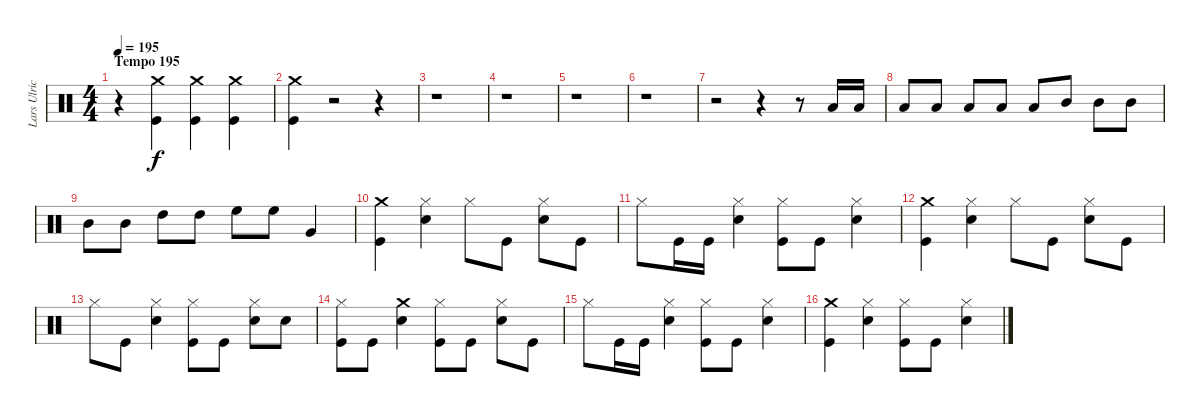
\track ("Lars Ulrich (Drums)" "Lars Ulric") {instrument percussion}
\staff {score}
\articulation defaults
\ts (4 4)
\section ("" "Tempo 195")
\tempo 195
\clef neutral
\ks c
r.4{dy f} ("Kick (hit)" "Crash medium (hit)").4 ("Kick (hit)" "Crash medium (hit)").4 ("Kick (hit)" "Crash medium (hit)").4 |
("Kick (hit)" "Crash medium (hit)").4 r.2 r.4 |
r.1 |
r.1 |
r.1 |
r.1 |
r.2 r.4 r.8 "Low Tom (hit)".16 "Low Tom (hit)".16 |
"Low Tom (hit)".8 "Low Tom (hit)".8 "Low Tom (hit)".8 "Low Tom (hit)".8 "Low Tom (hit)".8 "Mid Tom (hit)".8 "Mid Tom (hit)".8 "Mid Tom (hit)".8 |
"Mid Tom (hit)".8 "Mid Tom (hit)".8 "High Tom (hit)".8 "High Tom (hit)".8 "High Floor Tom (hit)".8 "High Floor Tom (hit)".8 "Very Low Tom (hit)".4 |
("Kick (hit)" "Crash medium (hit)").4 ("Hi-Hat (closed)" "Snare (hit) 2").4 "Hi-Hat (closed)".8 "Kick (hit)".8 ("Snare (hit) 2" "Hi-Hat (closed)").8 "Kick (hit)".8 |
"Hi-Hat (closed)".8 "Kick (hit)".16 "Kick (hit)".16 ("Snare (hit) 2" "Hi-Hat (closed)").4 ("Kick (hit)" "Hi-Hat (closed)").8 "Kick (hit)".8 ("Snare (hit) 2" "Hi-Hat (closed)").4 |
("Kick (hit)" "Crash medium (hit)").4 ("Snare (hit) 2" "Hi-Hat (closed)").4 "Hi-Hat (closed)".8 "Kick (hit)".8 ("Snare (hit) 2" "Hi-Hat (closed)").8 "Kick (hit)".8 |
"Hi-Hat (closed)".8 "Kick (hit)".8 ("Snare (hit) 2" "Hi-Hat (closed)").4 ("Kick (hit)" "Hi-Hat (closed)").8 "Kick (hit)".8 ("Snare (hit) 2" "Hi-Hat (closed)").8 "Snare (hit) 2".8 |
("Hi-Hat (closed)" "Kick (hit)").8 "Kick (hit)".8 ("Crash medium (hit)" "Snare (hit) 2").4 ("Hi-Hat (closed)" "Kick (hit)").8 "Kick (hit)".8 ("Snare (hit) 2" "Hi-Hat (closed)").8 "Kick (hit)".8 |
"Hi-Hat (closed)".8 "Kick (hit)".16 "Kick (hit)".16 ("Snare (hit) 2" "Hi-Hat (closed)").4 ("Kick (hit)" "Hi-Hat (closed)").8 "Kick (hit)".8 ("Snare (hit) 2" "Hi-Hat (closed)").4 |
("Kick (hit)" "Crash medium (hit)").4 ("Snare (hit) 2" "Hi-Hat (closed)").4 ("Hi-Hat (closed)" "Kick (hit)").8 "Kick (hit)".8 ("Snare (hit) 2" "Hi-Hat (closed)").4
